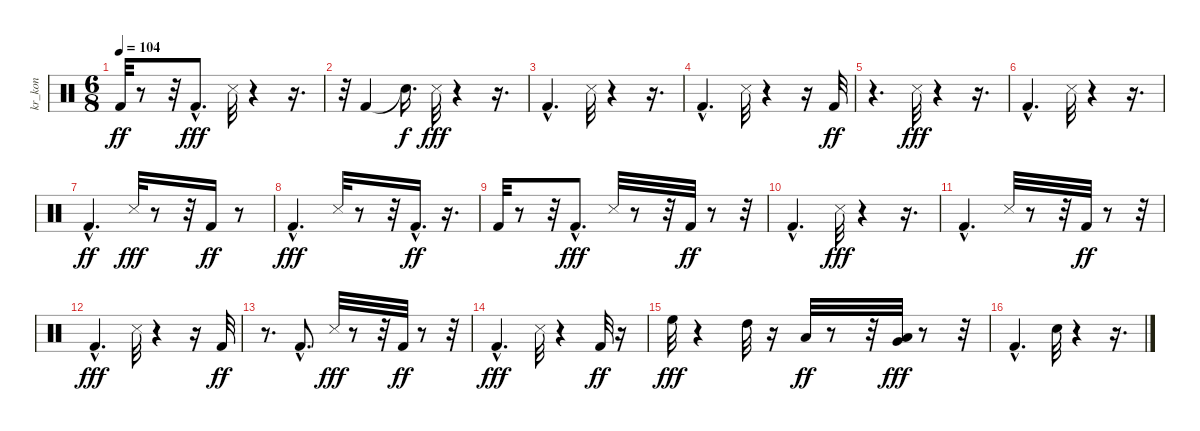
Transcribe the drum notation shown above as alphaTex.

\track ("kr_kon" "kr_kon") {instrument percussion}
\staff {score}
\articulation defaults
\ts (6 8)
\tempo 104
\clef neutral
\ks c "Kick (hit) 2".32{dy ff}
r.8 r.32 "Kick (hit) 2"{hac}.8{d dy fff} "Snare (side stick) 3".32 r.4 r.16{d} |
r.32 "Kick (hit) 2".4 "Snare (hit)"{t}.16{d dy f} "Snare (side stick) 3".32{dy fff} r.4 r.16{d} |
"Kick (hit) 2"{hac}.4{d} "Snare (side stick) 3".32 r.4 r.16{d} |
"Kick (hit) 2"{hac}.4{d} "Snare (side stick) 3".32 r.4 r.16 "Kick (hit) 2".32{dy ff} |
r.4{d} "Snare (side stick) 3".32{dy fff} r.4 r.16{d} |
"Kick (hit) 2"{hac}.4{d} "Snare (side stick) 3".32 r.4 r.16{d} |
"Kick (hit) 2"{hac}.4{d dy ff} "Snare (side stick) 3".32{dy fff} r.8 r.32 "Kick (hit) 2".16{dy ff} r.8 |
"Kick (hit) 2"{hac}.4{d dy fff} "Snare (side stick) 3".32 r.8 r.32 "Kick (hit) 2"{hac}.16{d dy ff} r.16{d} |
"Kick (hit) 2".32 r.8 r.32 "Kick (hit) 2"{hac}.8{d dy fff} "Snare (side stick) 3".32 r.8 r.32 "Kick (hit) 2".32{dy ff} r.8 r.32 |
"Kick (hit) 2"{hac}.4{d} "Snare (side stick) 3".32{dy fff} r.4 r.16{d} |
"Kick (hit) 2"{hac}.4{d} "Snare (side stick) 3".32 r.8 r.32 "Kick (hit) 2".32{dy ff} r.8 r.32 |
"Kick (hit) 2"{hac}.4{d dy fff} "Snare (side stick) 3".32 r.4 r.16 "Kick (hit) 2".32{dy ff} |
r.8{d} "Kick (hit) 2"{hac}.8{d} "Snare (side stick) 3".32{dy fff} r.8 r.32 "Kick (hit) 2".32{dy ff} r.8 r.32 |
"Kick (hit) 2"{hac}.4{d dy fff} "Snare (side stick) 3".32 r.4 "Kick (hit) 2".32{dy ff} r.16 |
"High Floor Tom (hit)".32{dy fff} r.4 "High Tom (hit)".32 r.16 "Low Tom (hit)".32{dy ff} r.8 r.32 ("Very Low Tom (hit)" "Low Tom (hit)").32{dy fff} r.8 r.32 |
"Kick (hit) 2"{hac}.4{d} "Electric Snare (hit)".32 r.4 r.16{d}
